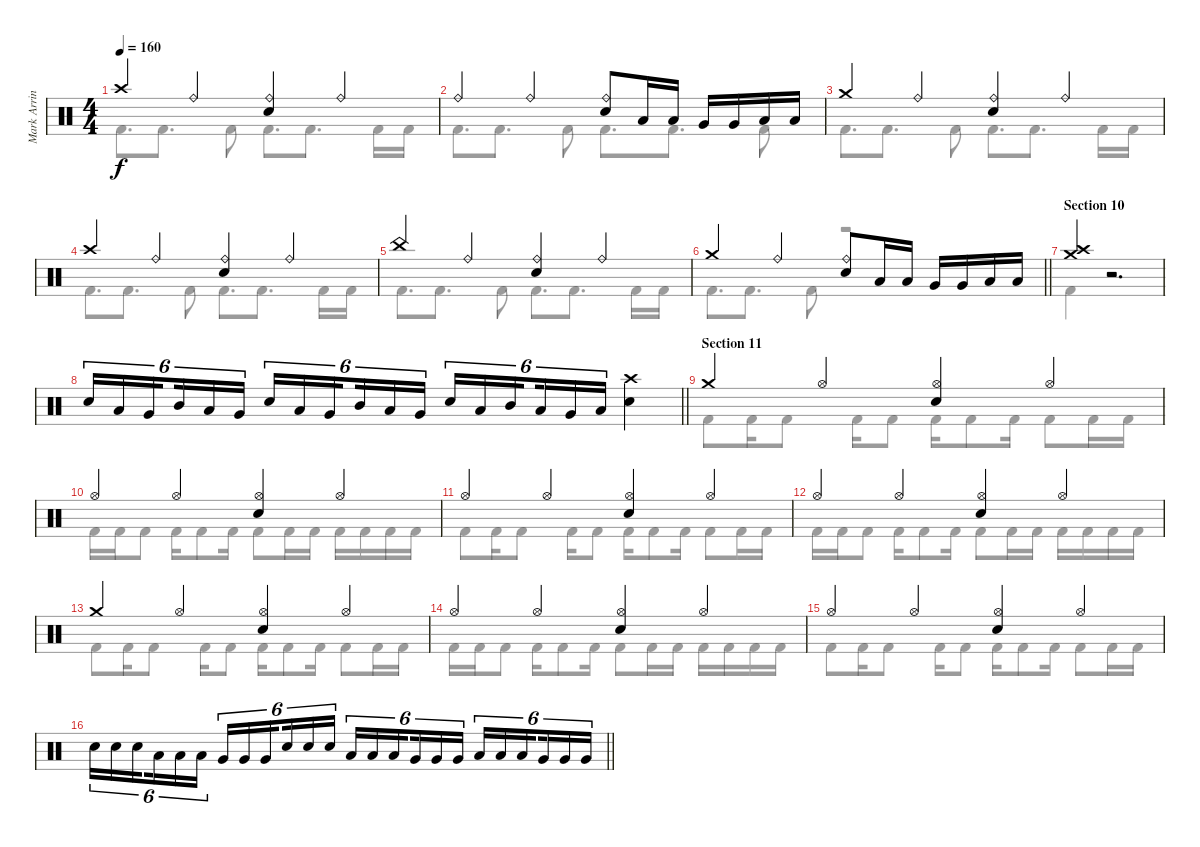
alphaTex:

\track ("Mark Arrington – drums" "Mark Arrin") {instrument percussion}
\staff {score}
\articulation defaults
\voice
\ts (4 4)
\tempo 160
\clef neutral
\ks c "Crash high (hit)".4{dy f} "Ride (bell)".4
("Ride (bell)" "Electric Snare (hit)").4 "Ride (bell)".4 |
"Ride (bell)".4 "Ride (bell)".4 ("Ride (bell)" "Electric Snare (hit)").8 "Low Tom (hit)".16 "Low Tom (hit)".16 "Very Low Tom (hit)".16 "Very Low Tom (hit)".16 "Low Floor Tom (hit)".16 "Low Floor Tom (hit)".16 |
"Crash medium (hit)".4 "Ride (bell)".4 ("Ride (bell)" "Electric Snare (hit)").4 "Ride (bell)".4 |
"Crash high (hit)".4 "Ride (bell)".4 ("Ride (bell)" "Electric Snare (hit)").4 "Ride (bell)".4 |
"China (hit)".4 "Ride (bell)".4 ("Ride (bell)" "Electric Snare (hit)").4 "Ride (bell)".4 |
\barLineRight lightlight "Crash medium (hit)".4 "Ride (bell)".4
("Ride (bell)" "Electric Snare (hit)").8 "Low Tom (hit)".16 "Low Tom (hit)".16 "Very Low Tom (hit)".16 "Very Low Tom (hit)".16 "Low Floor Tom (hit)".16 "Low Floor Tom (hit)".16 |
\section ("" "Section 10")
("Crash medium (hit)" "Crash high (hit)").4 r.2{d} |
\barLineRight lightlight "Electric Snare (hit)".16{tu (6 4)} "Low Tom (hit)".16{tu (6 4)} "Very Low Tom (hit)".16{tu (6 4) beam splitsecondary} "Mid Tom (hit)".16{tu (6 4)} "Low Tom (hit)".16{tu (6 4)} "Very Low Tom (hit)".16{tu (6 4)} "Electric Snare (hit)".16{tu (6 4)} "Low Tom (hit)".16{tu (6 4)} "Very Low Tom (hit)".16{tu (6 4) beam splitsecondary} "Mid Tom (hit)".16{tu (6 4)} "Low Tom (hit)".16{tu (6 4)} "Very Low Tom (hit)".16{tu (6 4)} "Electric Snare (hit)".16{tu (6 4)} "Low Tom (hit)".16{tu (6 4)} "Mid Tom (hit)".16{tu (6 4) beam splitsecondary} "Low Tom (hit)".16{tu (6 4)} "Very Low Tom (hit)".16{tu (6 4)} "Low Floor Tom (hit)".16{tu (6 4)}
("Crash high (hit)" "Electric Snare (hit)").4 |
\section ("" "Section 11")
"Crash medium (hit)".4 "Hi-Hat (open)".4 ("Hi-Hat (open)" "Electric Snare (hit)").4 "Hi-Hat (open)".4 |
"Hi-Hat (open)".4 "Hi-Hat (open)".4 ("Hi-Hat (open)" "Electric Snare (hit)").4 "Hi-Hat (open)".4 |
"Hi-Hat (open)".4 "Hi-Hat (open)".4 ("Hi-Hat (open)" "Electric Snare (hit)").4 "Hi-Hat (open)".4 |
"Hi-Hat (open)".4 "Hi-Hat (open)".4 ("Hi-Hat (open)" "Electric Snare (hit)").4 "Hi-Hat (open)".4 |
"Crash medium (hit)".4 "Hi-Hat (open)".4 ("Hi-Hat (open)" "Electric Snare (hit)").4 "Hi-Hat (open)".4 |
"Hi-Hat (open)".4 "Hi-Hat (open)".4 ("Hi-Hat (open)" "Electric Snare (hit)").4 "Hi-Hat (open)".4 |
"Hi-Hat (open)".4 "Hi-Hat (open)".4 ("Hi-Hat (open)" "Electric Snare (hit)").4 "Hi-Hat (open)".4 |
\barLineRight lightlight "Electric Snare (hit)".16{tu (6 4)} "Electric Snare (hit)".16{tu (6 4)} "Electric Snare (hit)".16{tu (6 4) beam splitsecondary} "Low Tom (hit)".16{tu (6 4)} "Low Tom (hit)".16{tu (6 4)} "Low Tom (hit)".16{tu (6 4)} "Very Low Tom (hit)".16{tu (6 4)} "Very Low Tom (hit)".16{tu (6 4)} "Very Low Tom (hit)".16{tu (6 4) beam splitsecondary} "Electric Snare (hit)".16{tu (6 4)} "Electric Snare (hit)".16{tu (6 4)} "Electric Snare (hit)".16{tu (6 4)} "Low Tom (hit)".16{tu (6 4)} "Low Tom (hit)".16{tu (6 4)} "Low Tom (hit)".16{tu (6 4) beam splitsecondary} "Very Low Tom (hit)".16{tu (6 4)} "Very Low Tom (hit)".16{tu (6 4)} "Very Low Tom (hit)".16{tu (6 4)} "Low Floor Tom (hit)".16{tu (6 4)} "Low Floor Tom (hit)".16{tu (6 4)} "Low Floor Tom (hit)".16{tu (6 4) beam splitsecondary} "Very Low Tom (hit)".16{tu (6 4)} "Very Low Tom (hit)".16{tu (6 4)} "Very Low Tom (hit)".16{tu (6 4)}
\voice
\clef neutral
\ottava regular
\simile none
\ks c "Kick (hit) 2".8{d dy f} "Kick (hit) 2".8{d} "Kick (hit) 2".8 "Kick (hit) 2".8{d} "Kick (hit) 2".8{d} "Kick (hit) 2".16 "Kick (hit) 2".16
|
"Kick (hit) 2".8{d} "Kick (hit) 2".8{d} "Kick (hit) 2".8 "Kick (hit) 2".8{d} "Kick (hit) 2".8{d} "Kick (hit) 2".8 |
"Kick (hit) 2".8{d} "Kick (hit) 2".8{d} "Kick (hit) 2".8 "Kick (hit) 2".8{d} "Kick (hit) 2".8{d} "Kick (hit) 2".16 "Kick (hit) 2".16 |
"Kick (hit) 2".8{d} "Kick (hit) 2".8{d} "Kick (hit) 2".8 "Kick (hit) 2".8{d} "Kick (hit) 2".8{d} "Kick (hit) 2".16 "Kick (hit) 2".16 |
"Kick (hit) 2".8{d} "Kick (hit) 2".8{d} "Kick (hit) 2".8 "Kick (hit) 2".8{d} "Kick (hit) 2".8{d} "Kick (hit) 2".16 "Kick (hit) 2".16 |
\barLineRight lightlight "Kick (hit) 2".8{d} "Kick (hit) 2".8{d} "Kick (hit) 2".8
r.2 |
"Kick (hit) 2".4 r.2{d} |
\barLineRight lightlight
|
"Kick (hit) 2".8 "Kick (hit) 2".16 "Kick (hit) 2".8 "Kick (hit) 2".16 "Kick (hit) 2".8 "Kick (hit) 2".16 "Kick (hit) 2".8 "Kick (hit) 2".16 "Kick (hit) 2".8 "Kick (hit) 2".16 "Kick (hit) 2".16 |
"Kick (hit) 2".16 "Kick (hit) 2".16 "Kick (hit) 2".8 "Kick (hit) 2".16 "Kick (hit) 2".8 "Kick (hit) 2".16 "Kick (hit) 2".8 "Kick (hit) 2".16 "Kick (hit) 2".16 "Kick (hit) 2".16 "Kick (hit) 2".16 "Kick (hit) 2".16 "Kick (hit) 2".16 |
"Kick (hit) 2".8 "Kick (hit) 2".16 "Kick (hit) 2".8 "Kick (hit) 2".16 "Kick (hit) 2".8 "Kick (hit) 2".16 "Kick (hit) 2".8 "Kick (hit) 2".16 "Kick (hit) 2".8 "Kick (hit) 2".16 "Kick (hit) 2".16 |
"Kick (hit) 2".16 "Kick (hit) 2".16 "Kick (hit) 2".8 "Kick (hit) 2".16 "Kick (hit) 2".8 "Kick (hit) 2".16 "Kick (hit) 2".8 "Kick (hit) 2".16 "Kick (hit) 2".16 "Kick (hit) 2".16 "Kick (hit) 2".16 "Kick (hit) 2".16 "Kick (hit) 2".16 |
"Kick (hit) 2".8 "Kick (hit) 2".16 "Kick (hit) 2".8 "Kick (hit) 2".16 "Kick (hit) 2".8 "Kick (hit) 2".16 "Kick (hit) 2".8 "Kick (hit) 2".16 "Kick (hit) 2".8 "Kick (hit) 2".16 "Kick (hit) 2".16 |
"Kick (hit) 2".16 "Kick (hit) 2".16 "Kick (hit) 2".8 "Kick (hit) 2".16 "Kick (hit) 2".8 "Kick (hit) 2".16 "Kick (hit) 2".8 "Kick (hit) 2".16 "Kick (hit) 2".16 "Kick (hit) 2".16 "Kick (hit) 2".16 "Kick (hit) 2".16 "Kick (hit) 2".16 |
"Kick (hit) 2".8 "Kick (hit) 2".16 "Kick (hit) 2".8 "Kick (hit) 2".16 "Kick (hit) 2".8 "Kick (hit) 2".16 "Kick (hit) 2".8 "Kick (hit) 2".16 "Kick (hit) 2".8 "Kick (hit) 2".16 "Kick (hit) 2".16 |
\barLineRight lightlight
